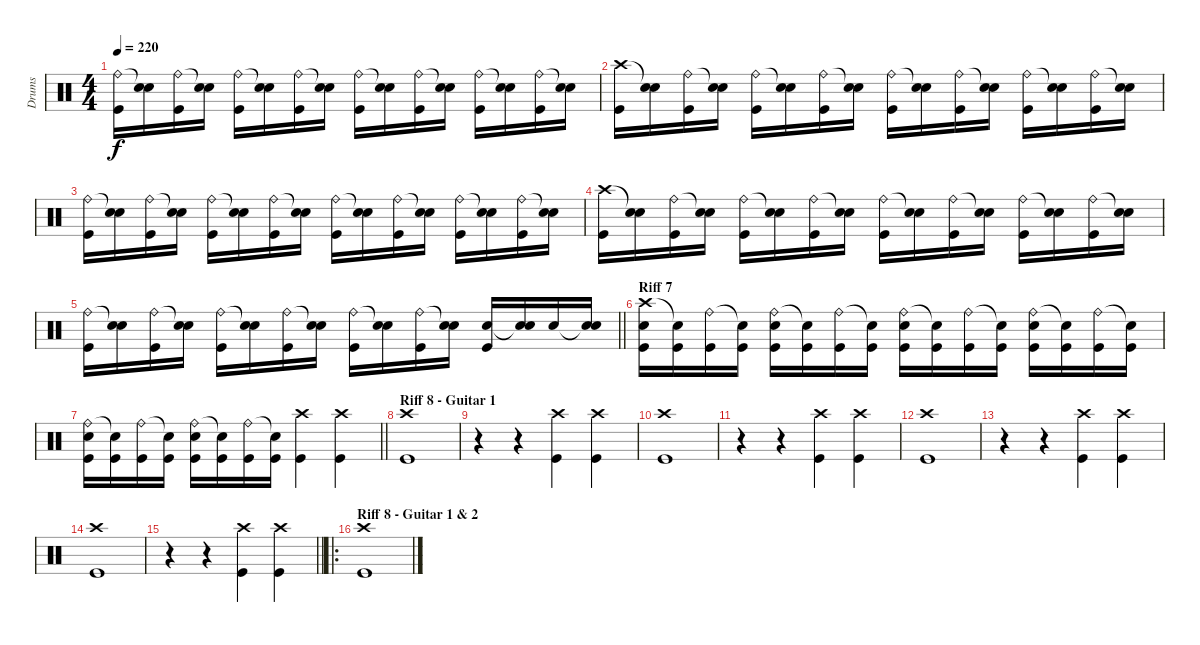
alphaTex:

\track ("Drums" "Drums") {instrument percussion}
\staff {score}
\articulation defaults
\ts (4 4)
\tempo 220
\clef neutral
\ks c
("Ride (bell)" "Kick (hit)").16{dy f} ("Snare (hit)"{t} "Electric Snare (hit)").16 ("Ride (bell)" "Kick (hit)").16 ("Snare (hit)"{t} "Electric Snare (hit)").16 ("Ride (bell)" "Kick (hit)").16 ("Snare (hit)"{t} "Electric Snare (hit)").16 ("Ride (bell)" "Kick (hit)").16 ("Snare (hit)"{t} "Electric Snare (hit)").16 ("Ride (bell)" "Kick (hit)").16 ("Snare (hit)"{t} "Electric Snare (hit)").16 ("Ride (bell)" "Kick (hit)").16 ("Snare (hit)"{t} "Electric Snare (hit)").16 ("Ride (bell)" "Kick (hit)").16 ("Snare (hit)"{t} "Electric Snare (hit)").16 ("Ride (bell)" "Kick (hit)").16 ("Snare (hit)"{t} "Electric Snare (hit)").16 |
("Crash high (hit)" "Kick (hit)").16 ("Snare (hit)"{t} "Electric Snare (hit)").16 ("Ride (bell)" "Kick (hit)").16 ("Snare (hit)"{t} "Electric Snare (hit)").16 ("Ride (bell)" "Kick (hit)").16 ("Snare (hit)"{t} "Electric Snare (hit)").16 ("Ride (bell)" "Kick (hit)").16 ("Snare (hit)"{t} "Electric Snare (hit)").16 ("Ride (bell)" "Kick (hit)").16 ("Snare (hit)"{t} "Electric Snare (hit)").16 ("Ride (bell)" "Kick (hit)").16 ("Snare (hit)"{t} "Electric Snare (hit)").16 ("Ride (bell)" "Kick (hit)").16 ("Snare (hit)"{t} "Electric Snare (hit)").16 ("Ride (bell)" "Kick (hit)").16 ("Snare (hit)"{t} "Electric Snare (hit)").16 |
("Ride (bell)" "Kick (hit)").16 ("Snare (hit)"{t} "Electric Snare (hit)").16 ("Ride (bell)" "Kick (hit)").16 ("Snare (hit)"{t} "Electric Snare (hit)").16 ("Ride (bell)" "Kick (hit)").16 ("Snare (hit)"{t} "Electric Snare (hit)").16 ("Ride (bell)" "Kick (hit)").16 ("Snare (hit)"{t} "Electric Snare (hit)").16 ("Ride (bell)" "Kick (hit)").16 ("Snare (hit)"{t} "Electric Snare (hit)").16 ("Ride (bell)" "Kick (hit)").16 ("Snare (hit)"{t} "Electric Snare (hit)").16 ("Ride (bell)" "Kick (hit)").16 ("Snare (hit)"{t} "Electric Snare (hit)").16 ("Ride (bell)" "Kick (hit)").16 ("Snare (hit)"{t} "Electric Snare (hit)").16 |
("Crash high (hit)" "Kick (hit)").16 ("Snare (hit)"{t} "Electric Snare (hit)").16 ("Ride (bell)" "Kick (hit)").16 ("Snare (hit)"{t} "Electric Snare (hit)").16 ("Ride (bell)" "Kick (hit)").16 ("Snare (hit)"{t} "Electric Snare (hit)").16 ("Ride (bell)" "Kick (hit)").16 ("Snare (hit)"{t} "Electric Snare (hit)").16 ("Ride (bell)" "Kick (hit)").16 ("Snare (hit)"{t} "Electric Snare (hit)").16 ("Ride (bell)" "Kick (hit)").16 ("Snare (hit)"{t} "Electric Snare (hit)").16 ("Ride (bell)" "Kick (hit)").16 ("Snare (hit)"{t} "Electric Snare (hit)").16 ("Ride (bell)" "Kick (hit)").16 ("Snare (hit)"{t} "Electric Snare (hit)").16 |
\barLineRight lightlight
("Ride (bell)" "Kick (hit)").16 ("Snare (hit)"{t} "Electric Snare (hit)").16 ("Ride (bell)" "Kick (hit)").16 ("Snare (hit)"{t} "Electric Snare (hit)").16 ("Ride (bell)" "Kick (hit)").16 ("Snare (hit)"{t} "Electric Snare (hit)").16 ("Ride (bell)" "Kick (hit)").16 ("Snare (hit)"{t} "Electric Snare (hit)").16 ("Ride (bell)" "Kick (hit)").16 ("Snare (hit)"{t} "Electric Snare (hit)").16 ("Ride (bell)" "Kick (hit)").16 ("Snare (hit)"{t} "Electric Snare (hit)").16 ("Electric Snare (hit)" "Kick (hit)").16 ("Snare (hit)"{t} "Electric Snare (hit)").16 "Electric Snare (hit)".16 ("Snare (hit)"{t} "Electric Snare (hit)").16 |
\section ("" "Riff 7 ")
("Crash high (hit)" "Electric Snare (hit)" "Kick (hit)").16 ("Snare (hit)"{t} "Kick (hit)").16 ("Ride (bell)" "Kick (hit)").16 ("Snare (hit)"{t} "Kick (hit)").16 ("Ride (bell)" "Electric Snare (hit)" "Kick (hit)").16 ("Snare (hit)"{t} "Kick (hit)").16 ("Ride (bell)" "Kick (hit)").16 ("Snare (hit)"{t} "Kick (hit)").16 ("Ride (bell)" "Electric Snare (hit)" "Kick (hit)").16 ("Snare (hit)"{t} "Kick (hit)").16 ("Ride (bell)" "Kick (hit)").16 ("Snare (hit)"{t} "Kick (hit)").16 ("Ride (bell)" "Electric Snare (hit)" "Kick (hit)").16 ("Snare (hit)"{t} "Kick (hit)").16 ("Ride (bell)" "Kick (hit)").16 ("Snare (hit)"{t} "Kick (hit)").16 |
\barLineRight lightlight
("Ride (bell)" "Electric Snare (hit)" "Kick (hit)").16 ("Snare (hit)"{t} "Kick (hit)").16 ("Ride (bell)" "Kick (hit)").16 ("Snare (hit)"{t} "Kick (hit)").16 ("Ride (bell)" "Electric Snare (hit)" "Kick (hit)").16 ("Snare (hit)"{t} "Kick (hit)").16 ("Ride (bell)" "Kick (hit)").16 ("Snare (hit)"{t} "Kick (hit)").16 ("Crash high (hit)" "Kick (hit)").4 ("Crash high (hit)" "Kick (hit)").4 |
\section ("" "Riff 8 - Guitar 1")
("Crash high (hit)" "Kick (hit)").1 |
r.4 r.4 ("Crash high (hit)" "Kick (hit)").4 ("Crash high (hit)" "Kick (hit)").4 |
("Crash high (hit)" "Kick (hit)").1 |
r.4 r.4 ("Crash high (hit)" "Kick (hit)").4 ("Crash high (hit)" "Kick (hit)").4 |
("Crash high (hit)" "Kick (hit)").1 |
r.4 r.4 ("Crash high (hit)" "Kick (hit)").4 ("Crash high (hit)" "Kick (hit)").4 |
("Crash high (hit)" "Kick (hit)").1 |
\barLineRight lightlight
r.4 r.4 ("Crash high (hit)" "Kick (hit)").4 ("Crash high (hit)" "Kick (hit)").4 |
\ro
\section ("" "Riff 8 - Guitar 1 & 2")
("Crash high (hit)" "Kick (hit)").1
